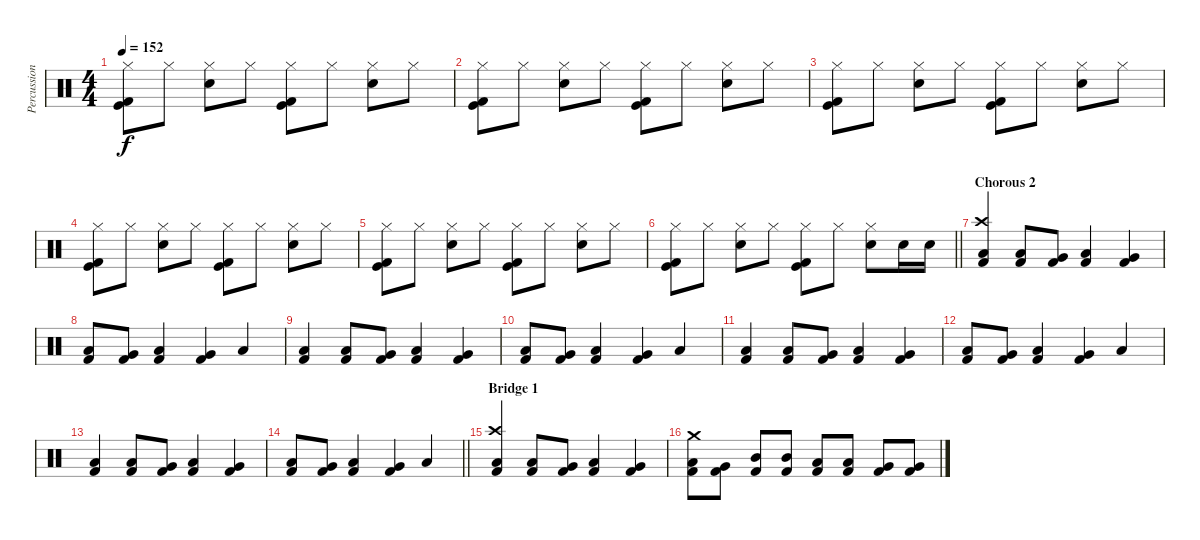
\track ("Percussion" "Percussion") {instrument percussion}
\staff {score}
\articulation defaults
\ts (4 4)
\tempo 152
\clef neutral
\ks c
("Hi-Hat (closed)" "Kick (hit)" "Kick (hit) 2").8{dy f} "Hi-Hat (closed)".8 ("Hi-Hat (closed)" "Electric Snare (hit)").8 "Hi-Hat (closed)".8 ("Hi-Hat (closed)" "Kick (hit)" "Kick (hit) 2").8 "Hi-Hat (closed)".8 ("Hi-Hat (closed)" "Electric Snare (hit)").8 "Hi-Hat (closed)".8 |
("Hi-Hat (closed)" "Kick (hit)" "Kick (hit) 2").8 "Hi-Hat (closed)".8 ("Hi-Hat (closed)" "Electric Snare (hit)").8 "Hi-Hat (closed)".8 ("Hi-Hat (closed)" "Kick (hit)" "Kick (hit) 2").8 "Hi-Hat (closed)".8 ("Hi-Hat (closed)" "Electric Snare (hit)").8 "Hi-Hat (closed)".8 |
("Hi-Hat (closed)" "Kick (hit)" "Kick (hit) 2").8 "Hi-Hat (closed)".8 ("Hi-Hat (closed)" "Electric Snare (hit)").8 "Hi-Hat (closed)".8 ("Hi-Hat (closed)" "Kick (hit)" "Kick (hit) 2").8 "Hi-Hat (closed)".8 ("Hi-Hat (closed)" "Electric Snare (hit)").8 "Hi-Hat (closed)".8 |
("Hi-Hat (closed)" "Kick (hit)" "Kick (hit) 2").8 "Hi-Hat (closed)".8 ("Hi-Hat (closed)" "Electric Snare (hit)").8 "Hi-Hat (closed)".8 ("Hi-Hat (closed)" "Kick (hit)" "Kick (hit) 2").8 "Hi-Hat (closed)".8 ("Hi-Hat (closed)" "Electric Snare (hit)").8 "Hi-Hat (closed)".8 |
("Hi-Hat (closed)" "Kick (hit)" "Kick (hit) 2").8 "Hi-Hat (closed)".8 ("Hi-Hat (closed)" "Electric Snare (hit)").8 "Hi-Hat (closed)".8 ("Hi-Hat (closed)" "Kick (hit)" "Kick (hit) 2").8 "Hi-Hat (closed)".8 ("Hi-Hat (closed)" "Electric Snare (hit)").8 "Hi-Hat (closed)".8 |
\barLineRight lightlight
("Hi-Hat (closed)" "Kick (hit)" "Kick (hit) 2").8 "Hi-Hat (closed)".8 ("Hi-Hat (closed)" "Electric Snare (hit)").8 "Hi-Hat (closed)".8 ("Hi-Hat (closed)" "Kick (hit)" "Kick (hit) 2").8 "Hi-Hat (closed)".8 ("Hi-Hat (closed)" "Electric Snare (hit)").8 "Electric Snare (hit)".16 "Electric Snare (hit)".16 |
\section ("" "Chorous 2")
("Crash high (hit)" "Kick (hit) 2" "Low Tom (hit)").4 ("Kick (hit) 2" "Low Tom (hit)").8 ("Kick (hit) 2" "Very Low Tom (hit)").8 ("Kick (hit) 2" "Low Floor Tom (hit)").4 ("Kick (hit) 2" "Very Low Tom (hit)").4 |
("Kick (hit) 2" "Low Tom (hit)").8 ("Kick (hit) 2" "Very Low Tom (hit)").8 ("Kick (hit) 2" "Low Floor Tom (hit)").4 ("Kick (hit) 2" "Very Low Tom (hit)").4 "Low Floor Tom (hit)".4 |
("Kick (hit) 2" "Low Tom (hit)").4 ("Kick (hit) 2" "Low Tom (hit)").8 ("Kick (hit) 2" "Very Low Tom (hit)").8 ("Kick (hit) 2" "Low Floor Tom (hit)").4 ("Kick (hit) 2" "Very Low Tom (hit)").4 |
("Kick (hit) 2" "Low Tom (hit)").8 ("Kick (hit) 2" "Very Low Tom (hit)").8 ("Kick (hit) 2" "Low Floor Tom (hit)").4 ("Kick (hit) 2" "Very Low Tom (hit)").4 "Low Floor Tom (hit)".4 |
("Kick (hit) 2" "Low Tom (hit)").4 ("Kick (hit) 2" "Low Tom (hit)").8 ("Kick (hit) 2" "Very Low Tom (hit)").8 ("Kick (hit) 2" "Low Floor Tom (hit)").4 ("Kick (hit) 2" "Very Low Tom (hit)").4 |
("Kick (hit) 2" "Low Tom (hit)").8 ("Kick (hit) 2" "Very Low Tom (hit)").8 ("Kick (hit) 2" "Low Floor Tom (hit)").4 ("Kick (hit) 2" "Very Low Tom (hit)").4 "Low Floor Tom (hit)".4 |
("Kick (hit) 2" "Low Tom (hit)").4 ("Kick (hit) 2" "Low Tom (hit)").8 ("Kick (hit) 2" "Very Low Tom (hit)").8 ("Kick (hit) 2" "Low Floor Tom (hit)").4 ("Kick (hit) 2" "Very Low Tom (hit)").4 |
\barLineRight lightlight
("Kick (hit) 2" "Low Tom (hit)").8 ("Kick (hit) 2" "Very Low Tom (hit)").8 ("Kick (hit) 2" "Low Floor Tom (hit)").4 ("Kick (hit) 2" "Very Low Tom (hit)").4 "Low Floor Tom (hit)".4 |
\section ("" "Bridge 1")
("Crash high (hit)" "Kick (hit) 2" "Low Tom (hit)").4 ("Kick (hit) 2" "Low Tom (hit)").8 ("Kick (hit) 2" "Very Low Tom (hit)").8 ("Kick (hit) 2" "Low Floor Tom (hit)").4 ("Kick (hit) 2" "Very Low Tom (hit)").4 |
("Crash medium (hit)" "Kick (hit) 2" "Low Tom (hit)").8 ("Kick (hit) 2" "Very Low Tom (hit)").8 ("Kick (hit) 2" "Mid Tom (hit)").8 ("Kick (hit) 2" "Mid Tom (hit)").8 ("Kick (hit) 2" "Low Tom (hit)").8 ("Kick (hit) 2" "Low Tom (hit)").8 ("Kick (hit) 2" "Very Low Tom (hit)").8 ("Kick (hit) 2" "Very Low Tom (hit)").8
